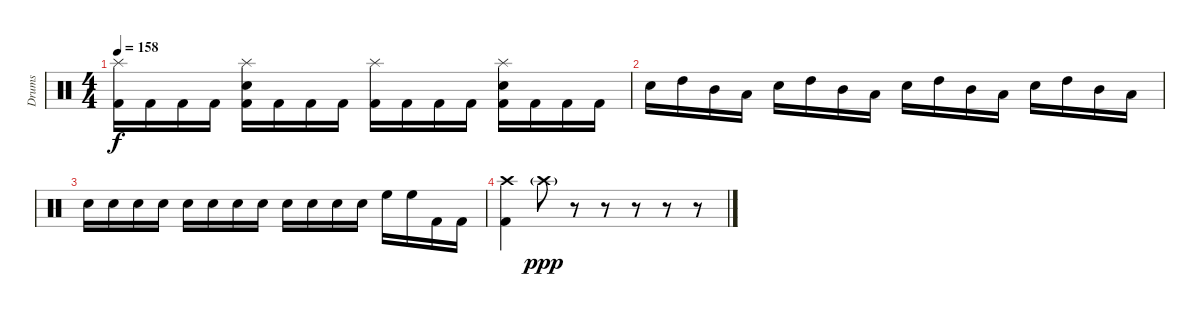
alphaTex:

\track ("Drums" "Drums") {instrument percussion}
\staff {score}
\articulation defaults
\ts (4 4)
\tempo 158
\clef neutral
\ks c
("Splash (hit)" "Kick (hit) 2").16{dy f} "Kick (hit) 2".16 "Kick (hit) 2".16 "Kick (hit) 2".16 ("Splash (hit)" "Electric Snare (hit)" "Kick (hit) 2").16 "Kick (hit) 2".16 "Kick (hit) 2".16 "Kick (hit) 2".16 ("Splash (hit)" "Kick (hit) 2").16 "Kick (hit) 2".16 "Kick (hit) 2".16 "Kick (hit) 2".16 ("Splash (hit)" "Electric Snare (hit)" "Kick (hit) 2").16 "Kick (hit) 2".16 "Kick (hit) 2".16 "Kick (hit) 2".16 |
"Electric Snare (hit)".16 "High Tom (hit)".16 "Mid Tom (hit)".16 "Low Tom (hit)".16 "Electric Snare (hit)".16 "High Tom (hit)".16 "Mid Tom (hit)".16 "Low Tom (hit)".16 "Electric Snare (hit)".16 "High Tom (hit)".16 "Mid Tom (hit)".16 "Low Tom (hit)".16 "Electric Snare (hit)".16 "High Tom (hit)".16 "Mid Tom (hit)".16 "Low Tom (hit)".16 |
"Electric Snare (hit)".16 "Electric Snare (hit)".16 "Electric Snare (hit)".16 "Electric Snare (hit)".16 "Electric Snare (hit)".16 "Electric Snare (hit)".16 "Electric Snare (hit)".16 "Electric Snare (hit)".16 "Electric Snare (hit)".16 "Electric Snare (hit)".16 "Electric Snare (hit)".16 "Electric Snare (hit)".16 "High Floor Tom (hit)".16 "High Floor Tom (hit)".16 "Kick (hit) 2".16 "Kick (hit) 2".16 |
("Crash high (hit)" "Kick (hit) 2").4 "Crash high (hit)"{g}.8{dy ppp volume 0} r.8 r.8 r.8 r.8 r.8
